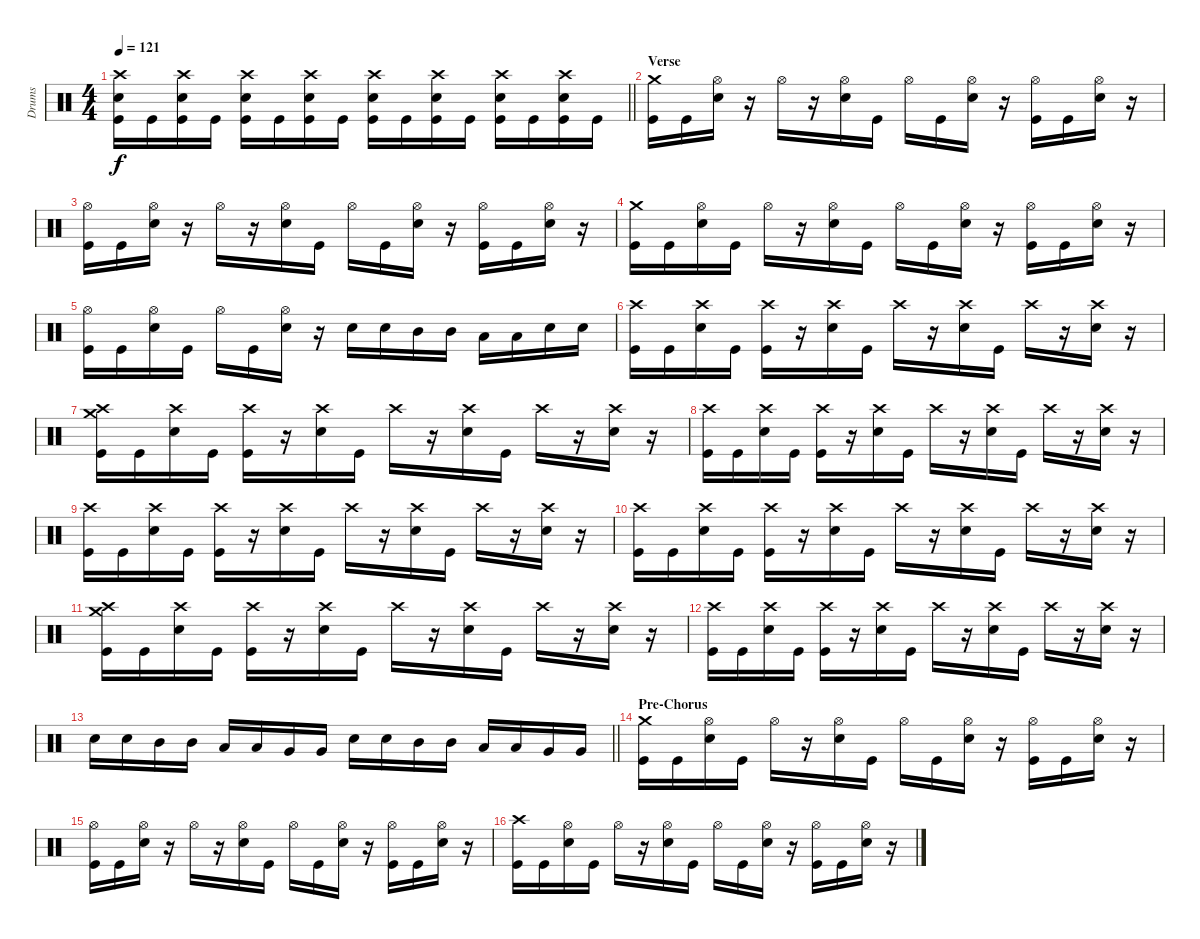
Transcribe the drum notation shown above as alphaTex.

\track ("Drums" "Drums") {instrument percussion}
\staff {score}
\articulation defaults
\ts (4 4)
\tempo 121
\clef neutral
\barLineRight lightlight
\ks c
("Crash high (hit)" "Electric Snare (hit)" "Kick (hit)").16{dy f} "Kick (hit)".16 ("Crash high (hit)" "Electric Snare (hit)" "Kick (hit)").16 "Kick (hit)".16 ("Crash high (hit)" "Electric Snare (hit)" "Kick (hit)").16 "Kick (hit)".16 ("Crash high (hit)" "Electric Snare (hit)" "Kick (hit)").16 "Kick (hit)".16 ("Crash high (hit)" "Electric Snare (hit)" "Kick (hit)").16 "Kick (hit)".16 ("Crash high (hit)" "Electric Snare (hit)" "Kick (hit)").16 "Kick (hit)".16 ("Crash high (hit)" "Electric Snare (hit)" "Kick (hit)").16 "Kick (hit)".16 ("Crash high (hit)" "Electric Snare (hit)" "Kick (hit)").16 "Kick (hit)".16 |
\section ("" "Verse")
("Crash medium (hit)" "Kick (hit)").16 "Kick (hit)".16 ("Hi-Hat (open)" "Electric Snare (hit)").16 r.16 "Hi-Hat (open)".16 r.16 ("Hi-Hat (open)" "Electric Snare (hit)").16 "Kick (hit)".16 "Hi-Hat (open)".16 "Kick (hit)".16 ("Hi-Hat (open)" "Electric Snare (hit)").16 r.16 ("Hi-Hat (open)" "Kick (hit)").16 "Kick (hit)".16 ("Hi-Hat (open)" "Electric Snare (hit)").16 r.16 |
("Hi-Hat (open)" "Kick (hit)").16 "Kick (hit)".16 ("Hi-Hat (open)" "Electric Snare (hit)").16 r.16 "Hi-Hat (open)".16 r.16 ("Hi-Hat (open)" "Electric Snare (hit)").16 "Kick (hit)".16 "Hi-Hat (open)".16 "Kick (hit)".16 ("Hi-Hat (open)" "Electric Snare (hit)").16 r.16 ("Hi-Hat (open)" "Kick (hit)").16 "Kick (hit)".16 ("Hi-Hat (open)" "Electric Snare (hit)").16 r.16 |
("Crash medium (hit)" "Kick (hit)").16 "Kick (hit)".16 ("Hi-Hat (open)" "Electric Snare (hit)").16 "Kick (hit)".16 "Hi-Hat (open)".16 r.16 ("Hi-Hat (open)" "Electric Snare (hit)").16 "Kick (hit)".16 "Hi-Hat (open)".16 "Kick (hit)".16 ("Hi-Hat (open)" "Electric Snare (hit)").16 r.16 ("Hi-Hat (open)" "Kick (hit)").16 "Kick (hit)".16 ("Hi-Hat (open)" "Electric Snare (hit)").16 r.16 |
("Hi-Hat (open)" "Kick (hit)").16 "Kick (hit)".16 ("Hi-Hat (open)" "Electric Snare (hit)").16 "Kick (hit)".16 "Hi-Hat (open)".16 "Kick (hit)".16 ("Hi-Hat (open)" "Electric Snare (hit)").16 r.16 "Electric Snare (hit)".16 "Electric Snare (hit)".16 "Mid Tom (hit)".16 "Mid Tom (hit)".16 "Low Tom (hit)".16 "Low Tom (hit)".16 "Electric Snare (hit)".16 "Electric Snare (hit)".16 |
("Crash high (hit)" "Kick (hit)").16 "Kick (hit)".16 ("Crash high (hit)" "Electric Snare (hit)").16 "Kick (hit)".16 ("Crash high (hit)" "Kick (hit)").16 r.16 ("Crash high (hit)" "Electric Snare (hit)").16 "Kick (hit)".16 "Crash high (hit)".16 r.16 ("Crash high (hit)" "Electric Snare (hit)").16 "Kick (hit)".16 "Crash high (hit)".16 r.16 ("Crash high (hit)" "Electric Snare (hit)").16 r.16 |
("Crash high (hit)" "Crash medium (hit)" "Kick (hit)").16 "Kick (hit)".16 ("Crash high (hit)" "Electric Snare (hit)").16 "Kick (hit)".16 ("Crash high (hit)" "Kick (hit)").16 r.16 ("Crash high (hit)" "Electric Snare (hit)").16 "Kick (hit)".16 "Crash high (hit)".16 r.16 ("Crash high (hit)" "Electric Snare (hit)").16 "Kick (hit)".16 "Crash high (hit)".16 r.16 ("Crash high (hit)" "Electric Snare (hit)").16 r.16 |
("Crash high (hit)" "Kick (hit)").16 "Kick (hit)".16 ("Crash high (hit)" "Electric Snare (hit)").16 "Kick (hit)".16 ("Crash high (hit)" "Kick (hit)").16 r.16 ("Crash high (hit)" "Electric Snare (hit)").16 "Kick (hit)".16 "Crash high (hit)".16 r.16 ("Crash high (hit)" "Electric Snare (hit)").16 "Kick (hit)".16 "Crash high (hit)".16 r.16 ("Crash high (hit)" "Electric Snare (hit)").16 r.16 |
("Crash high (hit)" "Kick (hit)").16 "Kick (hit)".16 ("Crash high (hit)" "Electric Snare (hit)").16 "Kick (hit)".16 ("Crash high (hit)" "Kick (hit)").16 r.16 ("Crash high (hit)" "Electric Snare (hit)").16 "Kick (hit)".16 "Crash high (hit)".16 r.16 ("Crash high (hit)" "Electric Snare (hit)").16 "Kick (hit)".16 "Crash high (hit)".16 r.16 ("Crash high (hit)" "Electric Snare (hit)").16 r.16 |
("Crash high (hit)" "Kick (hit)").16 "Kick (hit)".16 ("Crash high (hit)" "Electric Snare (hit)").16 "Kick (hit)".16 ("Crash high (hit)" "Kick (hit)").16 r.16 ("Crash high (hit)" "Electric Snare (hit)").16 "Kick (hit)".16 "Crash high (hit)".16 r.16 ("Crash high (hit)" "Electric Snare (hit)").16 "Kick (hit)".16 "Crash high (hit)".16 r.16 ("Crash high (hit)" "Electric Snare (hit)").16 r.16 |
("Crash high (hit)" "Crash medium (hit)" "Kick (hit)").16 "Kick (hit)".16 ("Crash high (hit)" "Electric Snare (hit)").16 "Kick (hit)".16 ("Crash high (hit)" "Kick (hit)").16 r.16 ("Crash high (hit)" "Electric Snare (hit)").16 "Kick (hit)".16 "Crash high (hit)".16 r.16 ("Crash high (hit)" "Electric Snare (hit)").16 "Kick (hit)".16 "Crash high (hit)".16 r.16 ("Crash high (hit)" "Electric Snare (hit)").16 r.16 |
("Crash high (hit)" "Kick (hit)").16 "Kick (hit)".16 ("Crash high (hit)" "Electric Snare (hit)").16 "Kick (hit)".16 ("Crash high (hit)" "Kick (hit)").16 r.16 ("Crash high (hit)" "Electric Snare (hit)").16 "Kick (hit)".16 "Crash high (hit)".16 r.16 ("Crash high (hit)" "Electric Snare (hit)").16 "Kick (hit)".16 "Crash high (hit)".16 r.16 ("Crash high (hit)" "Electric Snare (hit)").16 r.16 |
\barLineRight lightlight "Electric Snare (hit)".16 "Electric Snare (hit)".16 "Mid Tom (hit)".16 "Mid Tom (hit)".16 "Low Tom (hit)".16 "Low Tom (hit)".16 "Very Low Tom (hit)".16 "Very Low Tom (hit)".16 "Electric Snare (hit)".16 "Electric Snare (hit)".16 "Mid Tom (hit)".16 "Mid Tom (hit)".16 "Low Tom (hit)".16 "Low Tom (hit)".16 "Very Low Tom (hit)".16 "Very Low Tom (hit)".16
|
\section ("" "Pre-Chorus")
("Crash medium (hit)" "Kick (hit)").16 "Kick (hit)".16 ("Hi-Hat (open)" "Electric Snare (hit)").16 "Kick (hit)".16 "Hi-Hat (open)".16 r.16 ("Hi-Hat (open)" "Electric Snare (hit)").16 "Kick (hit)".16 "Hi-Hat (open)".16 "Kick (hit)".16 ("Hi-Hat (open)" "Electric Snare (hit)").16 r.16 ("Hi-Hat (open)" "Kick (hit)").16 "Kick (hit)".16 ("Hi-Hat (open)" "Electric Snare (hit)").16 r.16 |
("Hi-Hat (open)" "Kick (hit)").16 "Kick (hit)".16 ("Hi-Hat (open)" "Electric Snare (hit)").16 r.16 "Hi-Hat (open)".16 r.16 ("Hi-Hat (open)" "Electric Snare (hit)").16 "Kick (hit)".16 "Hi-Hat (open)".16 "Kick (hit)".16 ("Hi-Hat (open)" "Electric Snare (hit)").16 r.16 ("Hi-Hat (open)" "Kick (hit)").16 "Kick (hit)".16 ("Hi-Hat (open)" "Electric Snare (hit)").16 r.16 |
("Crash high (hit)" "Kick (hit)").16 "Kick (hit)".16 ("Hi-Hat (open)" "Electric Snare (hit)").16 "Kick (hit)".16 "Hi-Hat (open)".16 r.16 ("Hi-Hat (open)" "Electric Snare (hit)").16 "Kick (hit)".16 "Hi-Hat (open)".16 "Kick (hit)".16 ("Hi-Hat (open)" "Electric Snare (hit)").16 r.16 ("Hi-Hat (open)" "Kick (hit)").16 "Kick (hit)".16 ("Hi-Hat (open)" "Electric Snare (hit)").16 r.16
